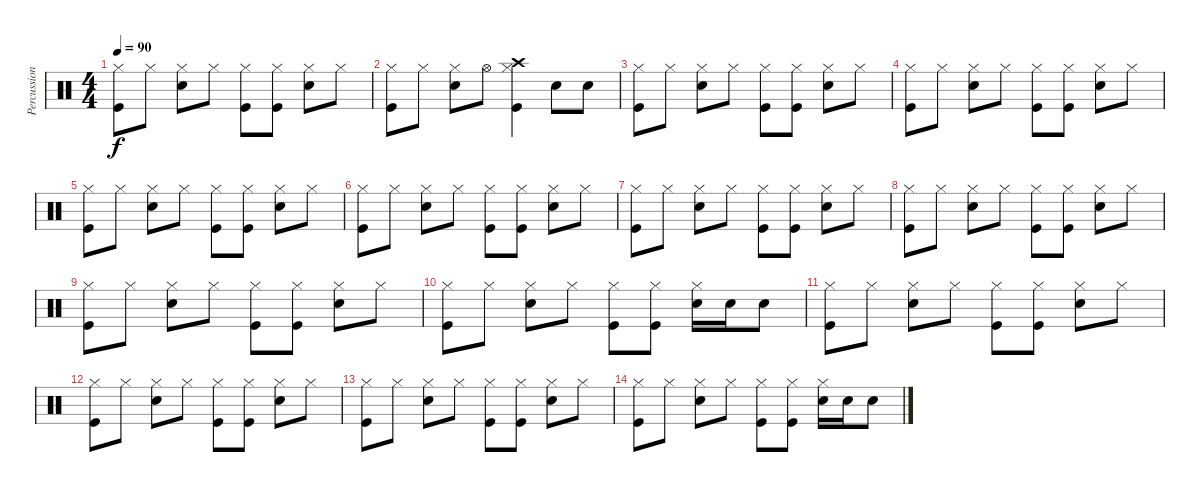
\track ("Percussion" "Percussion") {instrument percussion}
\staff {score}
\articulation defaults
\ts (4 4)
\tempo 90
\clef neutral
\ks c
("Hi-Hat (closed)" "Kick (hit)").8{dy f} "Hi-Hat (closed)".8 ("Hi-Hat (closed)" "Snare (hit) 2").8 "Hi-Hat (closed)".8 ("Hi-Hat (closed)" "Kick (hit)").8 ("Hi-Hat (closed)" "Kick (hit)").8 ("Hi-Hat (closed)" "Snare (hit) 2").8 "Hi-Hat (closed)".8 |
("Hi-Hat (closed)" "Kick (hit)").8 "Hi-Hat (closed)".8 ("Hi-Hat (closed)" "Snare (hit) 2").8 "Hi-Hat (open)".8 ("Hi-Hat (closed)" "Kick (hit)" "Crash high (hit)").4 "Snare (hit) 2".8 "Snare (hit) 2".8 |
("Hi-Hat (closed)" "Kick (hit)").8 "Hi-Hat (closed)".8 ("Hi-Hat (closed)" "Snare (hit) 2").8 "Hi-Hat (closed)".8 ("Hi-Hat (closed)" "Kick (hit)").8 ("Hi-Hat (closed)" "Kick (hit)").8 ("Hi-Hat (closed)" "Snare (hit) 2").8 "Hi-Hat (closed)".8 |
("Hi-Hat (closed)" "Kick (hit)").8 "Hi-Hat (closed)".8 ("Hi-Hat (closed)" "Snare (hit) 2").8 "Hi-Hat (closed)".8 ("Hi-Hat (closed)" "Kick (hit)").8 ("Hi-Hat (closed)" "Kick (hit)").8 ("Hi-Hat (closed)" "Snare (hit) 2").8 "Hi-Hat (closed)".8 |
("Hi-Hat (closed)" "Kick (hit)").8 "Hi-Hat (closed)".8 ("Hi-Hat (closed)" "Snare (hit) 2").8 "Hi-Hat (closed)".8 ("Hi-Hat (closed)" "Kick (hit)").8 ("Hi-Hat (closed)" "Kick (hit)").8 ("Hi-Hat (closed)" "Snare (hit) 2").8 "Hi-Hat (closed)".8 |
("Hi-Hat (closed)" "Kick (hit)").8 "Hi-Hat (closed)".8 ("Hi-Hat (closed)" "Snare (hit) 2").8 "Hi-Hat (closed)".8 ("Hi-Hat (closed)" "Kick (hit)").8 ("Hi-Hat (closed)" "Kick (hit)").8 ("Hi-Hat (closed)" "Snare (hit) 2").8 "Hi-Hat (closed)".8 |
("Hi-Hat (closed)" "Kick (hit)").8 "Hi-Hat (closed)".8 ("Hi-Hat (closed)" "Snare (hit) 2").8 "Hi-Hat (closed)".8 ("Hi-Hat (closed)" "Kick (hit)").8 ("Hi-Hat (closed)" "Kick (hit)").8 ("Hi-Hat (closed)" "Snare (hit) 2").8 "Hi-Hat (closed)".8 |
("Hi-Hat (closed)" "Kick (hit)").8 "Hi-Hat (closed)".8 ("Hi-Hat (closed)" "Snare (hit) 2").8 "Hi-Hat (closed)".8 ("Hi-Hat (closed)" "Kick (hit)").8 ("Hi-Hat (closed)" "Kick (hit)").8 ("Hi-Hat (closed)" "Snare (hit) 2").8 "Hi-Hat (closed)".8 |
("Hi-Hat (closed)" "Kick (hit)").8 "Hi-Hat (closed)".8 ("Hi-Hat (closed)" "Snare (hit) 2").8 "Hi-Hat (closed)".8 ("Hi-Hat (closed)" "Kick (hit)").8 ("Hi-Hat (closed)" "Kick (hit)").8 ("Hi-Hat (closed)" "Snare (hit) 2").8 "Hi-Hat (closed)".8 |
("Hi-Hat (closed)" "Kick (hit)").8 "Hi-Hat (closed)".8 ("Hi-Hat (closed)" "Snare (hit) 2").8 "Hi-Hat (closed)".8 ("Hi-Hat (closed)" "Kick (hit)").8 ("Hi-Hat (closed)" "Kick (hit)").8 ("Hi-Hat (closed)" "Snare (hit) 2").16 "Snare (hit) 2".16 "Snare (hit) 2".8 |
("Hi-Hat (closed)" "Kick (hit)").8 "Hi-Hat (closed)".8 ("Hi-Hat (closed)" "Snare (hit) 2").8 "Hi-Hat (closed)".8 ("Hi-Hat (closed)" "Kick (hit)").8 ("Hi-Hat (closed)" "Kick (hit)").8 ("Hi-Hat (closed)" "Snare (hit) 2").8 "Hi-Hat (closed)".8 |
("Hi-Hat (closed)" "Kick (hit)").8 "Hi-Hat (closed)".8 ("Hi-Hat (closed)" "Snare (hit) 2").8 "Hi-Hat (closed)".8 ("Hi-Hat (closed)" "Kick (hit)").8 ("Hi-Hat (closed)" "Kick (hit)").8 ("Hi-Hat (closed)" "Snare (hit) 2").8 "Hi-Hat (closed)".8 |
("Hi-Hat (closed)" "Kick (hit)").8 "Hi-Hat (closed)".8 ("Hi-Hat (closed)" "Snare (hit) 2").8 "Hi-Hat (closed)".8 ("Hi-Hat (closed)" "Kick (hit)").8 ("Hi-Hat (closed)" "Kick (hit)").8 ("Hi-Hat (closed)" "Snare (hit) 2").8 "Hi-Hat (closed)".8 |
("Hi-Hat (closed)" "Kick (hit)").8 "Hi-Hat (closed)".8 ("Hi-Hat (closed)" "Snare (hit) 2").8 "Hi-Hat (closed)".8 ("Hi-Hat (closed)" "Kick (hit)").8 ("Hi-Hat (closed)" "Kick (hit)").8 ("Hi-Hat (closed)" "Snare (hit) 2").16 "Snare (hit) 2".16 "Snare (hit) 2".8
